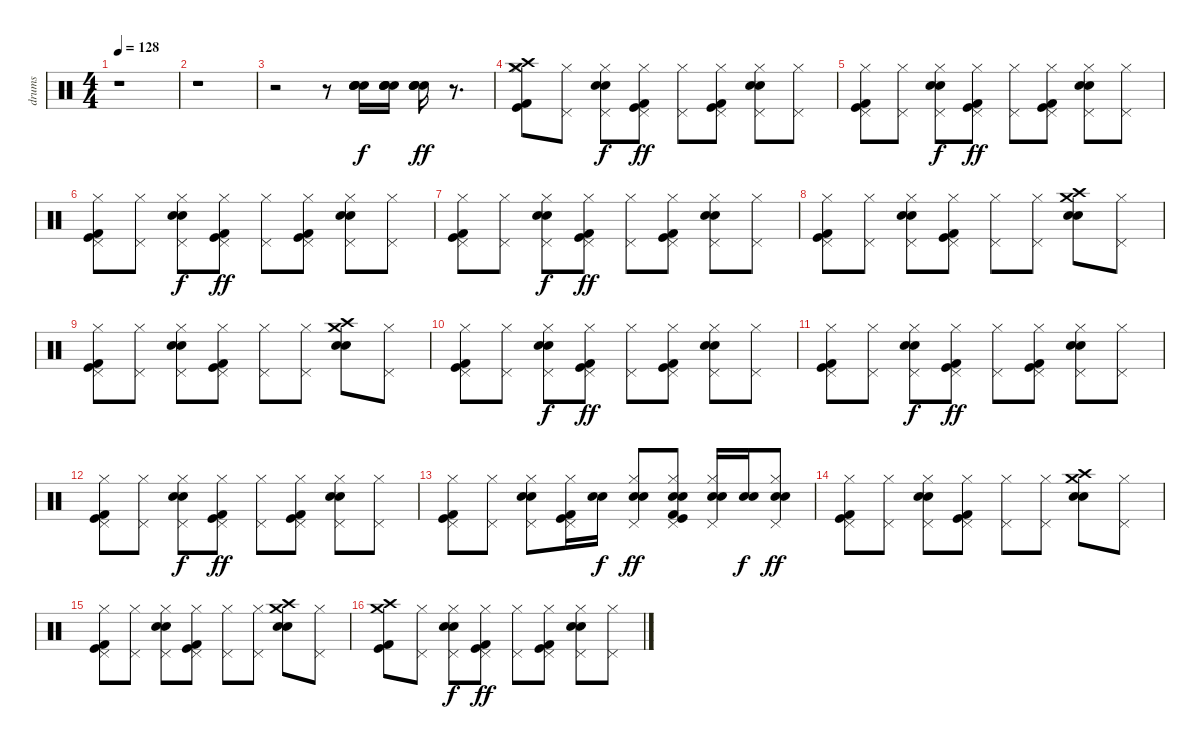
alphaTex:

\track ("drums" "drums") {instrument percussion}
\staff {score}
\articulation defaults
\ts (4 4)
\tempo 128
\clef neutral
\ks c
r.1{dy f} |
r.1 |
r.2 r.8 ("Snare (hit) 2" "Electric Snare (hit)" "Snare (hit) 2" "Electric Snare (hit)").16 ("Snare (hit) 2" "Electric Snare (hit)" "Snare (hit) 2" "Electric Snare (hit)").16 ("Snare (hit) 2" "Electric Snare (hit)" "Snare (hit) 2" "Electric Snare (hit)").16{dy ff} r.8{d} |
("Crash medium (hit)" "Hi-Hat (closed)" "Crash high (hit)" "Kick (hit)" "Kick (hit) 2").8 ("Hi-Hat (closed)" "Pedal Hi-Hat (hit)").8 ("Hi-Hat (closed)" "Pedal Hi-Hat (hit)" "Snare (hit) 2" "Snare (hit) 2").8{dy f} ("Pedal Hi-Hat (hit)" "Hi-Hat (closed)" "Kick (hit)" "Kick (hit) 2").8{dy ff} ("Hi-Hat (closed)" "Pedal Hi-Hat (hit)").8 ("Pedal Hi-Hat (hit)" "Hi-Hat (closed)" "Kick (hit)" "Kick (hit) 2").8 ("Pedal Hi-Hat (hit)" "Hi-Hat (closed)" "Snare (hit) 2" "Snare (hit) 2").8 ("Hi-Hat (closed)" "Pedal Hi-Hat (hit)").8 |
("Pedal Hi-Hat (hit)" "Hi-Hat (closed)" "Kick (hit)" "Kick (hit) 2").8 ("Hi-Hat (closed)" "Pedal Hi-Hat (hit)").8 ("Hi-Hat (closed)" "Pedal Hi-Hat (hit)" "Snare (hit) 2" "Snare (hit) 2").8{dy f} ("Pedal Hi-Hat (hit)" "Hi-Hat (closed)" "Kick (hit)" "Kick (hit) 2").8{dy ff} ("Hi-Hat (closed)" "Pedal Hi-Hat (hit)").8 ("Pedal Hi-Hat (hit)" "Hi-Hat (closed)" "Kick (hit)" "Kick (hit) 2").8 ("Pedal Hi-Hat (hit)" "Hi-Hat (closed)" "Snare (hit) 2" "Snare (hit) 2").8 ("Hi-Hat (closed)" "Pedal Hi-Hat (hit)").8 |
("Pedal Hi-Hat (hit)" "Hi-Hat (closed)" "Kick (hit)" "Kick (hit) 2").8 ("Hi-Hat (closed)" "Pedal Hi-Hat (hit)").8 ("Hi-Hat (closed)" "Pedal Hi-Hat (hit)" "Snare (hit) 2" "Snare (hit) 2").8{dy f} ("Pedal Hi-Hat (hit)" "Hi-Hat (closed)" "Kick (hit)" "Kick (hit) 2").8{dy ff} ("Hi-Hat (closed)" "Pedal Hi-Hat (hit)").8 ("Pedal Hi-Hat (hit)" "Hi-Hat (closed)" "Kick (hit)" "Kick (hit) 2").8 ("Pedal Hi-Hat (hit)" "Hi-Hat (closed)" "Snare (hit) 2" "Snare (hit) 2").8 ("Hi-Hat (closed)" "Pedal Hi-Hat (hit)").8 |
("Pedal Hi-Hat (hit)" "Hi-Hat (closed)" "Kick (hit)" "Kick (hit) 2").8 ("Hi-Hat (closed)" "Pedal Hi-Hat (hit)").8 ("Hi-Hat (closed)" "Pedal Hi-Hat (hit)" "Snare (hit) 2" "Snare (hit) 2").8{dy f} ("Pedal Hi-Hat (hit)" "Hi-Hat (closed)" "Kick (hit)" "Kick (hit) 2").8{dy ff} ("Hi-Hat (closed)" "Pedal Hi-Hat (hit)").8 ("Pedal Hi-Hat (hit)" "Hi-Hat (closed)" "Kick (hit)" "Kick (hit) 2").8 ("Pedal Hi-Hat (hit)" "Hi-Hat (closed)" "Snare (hit) 2" "Snare (hit) 2").8 ("Hi-Hat (closed)" "Pedal Hi-Hat (hit)").8 |
("Hi-Hat (closed)" "Pedal Hi-Hat (hit)" "Kick (hit)" "Kick (hit) 2").8 ("Hi-Hat (closed)" "Pedal Hi-Hat (hit)").8 ("Pedal Hi-Hat (hit)" "Hi-Hat (closed)" "Snare (hit) 2" "Snare (hit) 2").8 ("Pedal Hi-Hat (hit)" "Hi-Hat (closed)" "Kick (hit)" "Kick (hit) 2").8 ("Hi-Hat (closed)" "Pedal Hi-Hat (hit)").8 ("Hi-Hat (closed)" "Pedal Hi-Hat (hit)").8 ("Crash medium (hit)" "Crash high (hit)" "Snare (hit) 2" "Snare (hit) 2").8 ("Hi-Hat (closed)" "Pedal Hi-Hat (hit)").8 |
("Hi-Hat (closed)" "Pedal Hi-Hat (hit)" "Kick (hit)" "Kick (hit) 2").8 ("Hi-Hat (closed)" "Pedal Hi-Hat (hit)").8 ("Pedal Hi-Hat (hit)" "Hi-Hat (closed)" "Snare (hit) 2" "Snare (hit) 2").8 ("Pedal Hi-Hat (hit)" "Hi-Hat (closed)" "Kick (hit)" "Kick (hit) 2").8 ("Hi-Hat (closed)" "Pedal Hi-Hat (hit)").8 ("Hi-Hat (closed)" "Pedal Hi-Hat (hit)").8 ("Crash medium (hit)" "Crash high (hit)" "Snare (hit) 2" "Snare (hit) 2").8 ("Hi-Hat (closed)" "Pedal Hi-Hat (hit)").8 |
("Pedal Hi-Hat (hit)" "Hi-Hat (closed)" "Kick (hit)" "Kick (hit) 2").8 ("Hi-Hat (closed)" "Pedal Hi-Hat (hit)").8 ("Hi-Hat (closed)" "Pedal Hi-Hat (hit)" "Snare (hit) 2" "Snare (hit) 2").8{dy f} ("Pedal Hi-Hat (hit)" "Hi-Hat (closed)" "Kick (hit)" "Kick (hit) 2").8{dy ff} ("Hi-Hat (closed)" "Pedal Hi-Hat (hit)").8 ("Pedal Hi-Hat (hit)" "Hi-Hat (closed)" "Kick (hit)" "Kick (hit) 2").8 ("Pedal Hi-Hat (hit)" "Hi-Hat (closed)" "Snare (hit) 2" "Snare (hit) 2").8 ("Hi-Hat (closed)" "Pedal Hi-Hat (hit)").8 |
("Pedal Hi-Hat (hit)" "Hi-Hat (closed)" "Kick (hit)" "Kick (hit) 2").8 ("Hi-Hat (closed)" "Pedal Hi-Hat (hit)").8 ("Hi-Hat (closed)" "Pedal Hi-Hat (hit)" "Snare (hit) 2" "Snare (hit) 2").8{dy f} ("Pedal Hi-Hat (hit)" "Hi-Hat (closed)" "Kick (hit)" "Kick (hit) 2").8{dy ff} ("Hi-Hat (closed)" "Pedal Hi-Hat (hit)").8 ("Pedal Hi-Hat (hit)" "Hi-Hat (closed)" "Kick (hit)" "Kick (hit) 2").8 ("Pedal Hi-Hat (hit)" "Hi-Hat (closed)" "Snare (hit) 2" "Snare (hit) 2").8 ("Hi-Hat (closed)" "Pedal Hi-Hat (hit)").8 |
("Pedal Hi-Hat (hit)" "Hi-Hat (closed)" "Kick (hit)" "Kick (hit) 2").8 ("Hi-Hat (closed)" "Pedal Hi-Hat (hit)").8 ("Hi-Hat (closed)" "Pedal Hi-Hat (hit)" "Snare (hit) 2" "Snare (hit) 2").8{dy f} ("Pedal Hi-Hat (hit)" "Hi-Hat (closed)" "Kick (hit)" "Kick (hit) 2").8{dy ff} ("Hi-Hat (closed)" "Pedal Hi-Hat (hit)").8 ("Pedal Hi-Hat (hit)" "Hi-Hat (closed)" "Kick (hit)" "Kick (hit) 2").8 ("Pedal Hi-Hat (hit)" "Hi-Hat (closed)" "Snare (hit) 2" "Snare (hit) 2").8 ("Hi-Hat (closed)" "Pedal Hi-Hat (hit)").8 |
("Pedal Hi-Hat (hit)" "Hi-Hat (closed)" "Kick (hit)" "Kick (hit) 2").8 ("Hi-Hat (closed)" "Pedal Hi-Hat (hit)").8 ("Pedal Hi-Hat (hit)" "Hi-Hat (closed)" "Snare (hit) 2" "Snare (hit) 2").8 ("Pedal Hi-Hat (hit)" "Hi-Hat (closed)" "Kick (hit)" "Kick (hit) 2").16 ("Snare (hit) 2" "Snare (hit) 2").16{dy f} ("Pedal Hi-Hat (hit)" "Hi-Hat (closed)" "Snare (hit) 2" "Snare (hit) 2").8{dy ff} ("Hi-Hat (closed)" "Pedal Hi-Hat (hit)" "Snare (hit) 2" "Snare (hit) 2" "Kick (hit)" "Kick (hit) 2").8 ("Pedal Hi-Hat (hit)" "Hi-Hat (closed)" "Snare (hit) 2" "Snare (hit) 2").16 ("Snare (hit) 2" "Snare (hit) 2").16{dy f} ("Hi-Hat (closed)" "Pedal Hi-Hat (hit)" "Snare (hit) 2" "Snare (hit) 2").8{dy ff} |
("Pedal Hi-Hat (hit)" "Hi-Hat (closed)" "Kick (hit)" "Kick (hit) 2").8 ("Hi-Hat (closed)" "Pedal Hi-Hat (hit)").8 ("Pedal Hi-Hat (hit)" "Hi-Hat (closed)" "Snare (hit) 2" "Snare (hit) 2").8 ("Pedal Hi-Hat (hit)" "Hi-Hat (closed)" "Kick (hit)" "Kick (hit) 2").8 ("Hi-Hat (closed)" "Pedal Hi-Hat (hit)").8 ("Hi-Hat (closed)" "Pedal Hi-Hat (hit)").8 ("Crash medium (hit)" "Crash high (hit)" "Snare (hit) 2" "Snare (hit) 2").8 ("Hi-Hat (closed)" "Pedal Hi-Hat (hit)").8 |
("Hi-Hat (closed)" "Pedal Hi-Hat (hit)" "Kick (hit)" "Kick (hit) 2").8 ("Hi-Hat (closed)" "Pedal Hi-Hat (hit)").8 ("Pedal Hi-Hat (hit)" "Hi-Hat (closed)" "Snare (hit) 2" "Snare (hit) 2").8 ("Pedal Hi-Hat (hit)" "Hi-Hat (closed)" "Kick (hit)" "Kick (hit) 2").8 ("Hi-Hat (closed)" "Pedal Hi-Hat (hit)").8 ("Hi-Hat (closed)" "Pedal Hi-Hat (hit)").8 ("Crash medium (hit)" "Crash high (hit)" "Snare (hit) 2" "Snare (hit) 2").8 ("Hi-Hat (closed)" "Pedal Hi-Hat (hit)").8 |
("Crash medium (hit)" "Crash high (hit)" "Kick (hit)" "Kick (hit) 2").8 ("Hi-Hat (closed)" "Pedal Hi-Hat (hit)").8 ("Hi-Hat (closed)" "Pedal Hi-Hat (hit)" "Snare (hit) 2" "Snare (hit) 2").8{dy f} ("Pedal Hi-Hat (hit)" "Hi-Hat (closed)" "Kick (hit)" "Kick (hit) 2").8{dy ff} ("Hi-Hat (closed)" "Pedal Hi-Hat (hit)").8 ("Pedal Hi-Hat (hit)" "Hi-Hat (closed)" "Kick (hit)" "Kick (hit) 2").8 ("Pedal Hi-Hat (hit)" "Hi-Hat (closed)" "Snare (hit) 2" "Snare (hit) 2").8 ("Hi-Hat (closed)" "Pedal Hi-Hat (hit)").8
